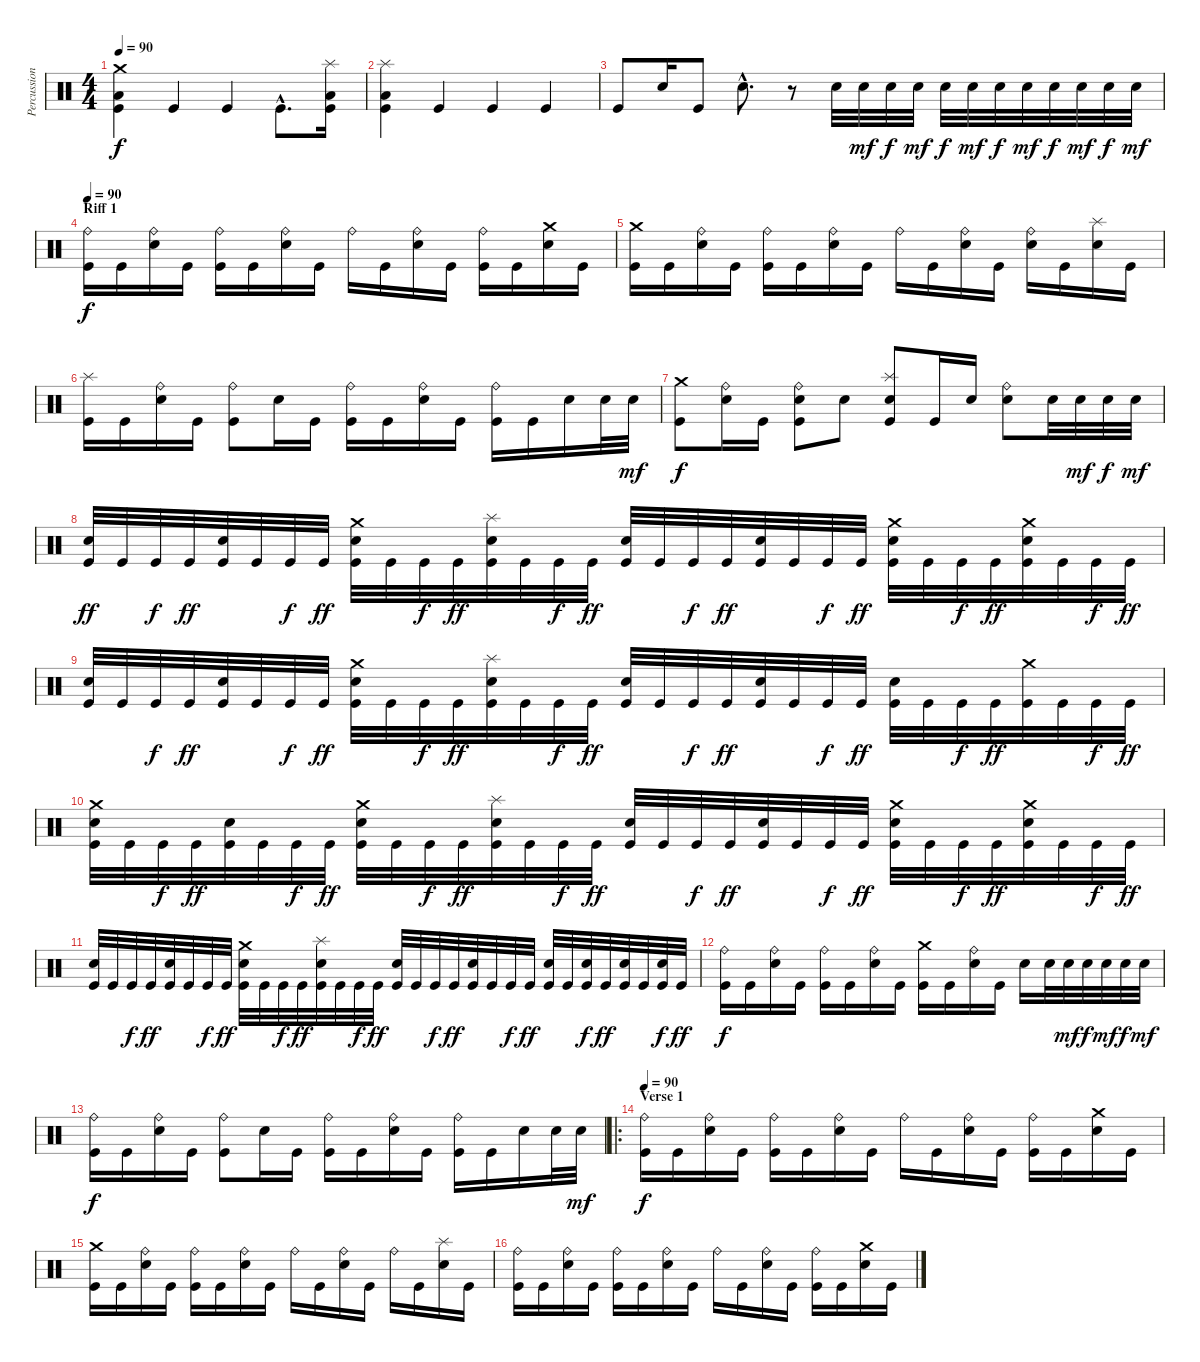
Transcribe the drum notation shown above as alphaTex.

\track ("Percussioni" "Percussion") {instrument percussion}
\staff {score}
\articulation defaults
\ts (4 4)
\tempo 90
\clef neutral
\ks c
("Crash medium (hit)" "Low Floor Tom (hit)" "Kick (hit)").4{dy f} "Kick (hit)".4 "Kick (hit)".4 "Kick (hit)"{hac}.8{d} ("Splash (hit)" "Low Floor Tom (hit)" "Kick (hit)").16 |
("Splash (hit)" "Low Floor Tom (hit)" "Kick (hit)").4 "Kick (hit)".4 "Kick (hit)".4 "Kick (hit)".4 |
"Kick (hit)".8 "Snare (hit) 2".16 "Kick (hit)".8 "Snare (hit) 2"{hac}.8{d} r.8 "Snare (hit) 2".32 "Snare (hit) 2".32{dy mf} "Snare (hit) 2".32{dy f} "Snare (hit) 2".32{dy mf} "Snare (hit) 2".32{dy f} "Snare (hit) 2".32{dy mf} "Snare (hit) 2".32{dy f} "Snare (hit) 2".32{dy mf} "Snare (hit) 2".32{dy f} "Snare (hit) 2".32{dy mf} "Snare (hit) 2".32{dy f} "Snare (hit) 2".32{dy mf} |
\section ("" "Riff 1")
\tempo 90
("Ride (bell)" "Kick (hit)").16{dy f} "Kick (hit)".16 ("Ride (bell)" "Snare (hit) 2").16 "Kick (hit)".16 ("Ride (bell)" "Kick (hit)").16 "Kick (hit)".16 ("Ride (bell)" "Snare (hit) 2").16 "Kick (hit)".16 "Ride (bell)".16 "Kick (hit)".16 ("Ride (bell)" "Snare (hit) 2").16 "Kick (hit)".16 ("Ride (bell)" "Kick (hit)").16 "Kick (hit)".16 ("Crash medium (hit)" "Snare (hit) 2").16 "Kick (hit)".16 |
("Crash medium (hit)" "Kick (hit)").16 "Kick (hit)".16 ("Ride (bell)" "Snare (hit) 2").16 "Kick (hit)".16 ("Ride (bell)" "Kick (hit)").16 "Kick (hit)".16 ("Ride (bell)" "Snare (hit) 2").16 "Kick (hit)".16 "Ride (bell)".16 "Kick (hit)".16 ("Ride (bell)" "Snare (hit) 2").16 "Kick (hit)".16 ("Ride (bell)" "Snare (hit) 2").16 "Kick (hit)".16 ("Splash (hit)" "Snare (hit) 2").16 "Kick (hit)".16 |
("Splash (hit)" "Kick (hit)").16 "Kick (hit)".16 ("Ride (bell)" "Snare (hit) 2").16 "Kick (hit)".16 ("Ride (bell)" "Kick (hit)").8 "Snare (hit) 2".16 "Kick (hit)".16 ("Ride (bell)" "Kick (hit)").16 "Kick (hit)".16 ("Ride (bell)" "Snare (hit) 2").16 "Kick (hit)".16 ("Ride (bell)" "Kick (hit)").16 "Kick (hit)".16 "Snare (hit) 2".16 "Snare (hit) 2".32 "Snare (hit) 2".32{dy mf} |
("Crash medium (hit)" "Kick (hit)").8{dy f} ("Ride (bell)" "Snare (hit) 2").16 "Kick (hit)".16 ("Ride (bell)" "Snare (hit) 2" "Kick (hit)").8 "Snare (hit) 2".8 ("Splash (hit)" "Snare (hit) 2" "Kick (hit)").8 "Kick (hit)".16 "Snare (hit) 2".16 ("Ride (bell)" "Snare (hit) 2").8 "Snare (hit) 2".32 "Snare (hit) 2".32{dy mf} "Snare (hit) 2".32{dy f} "Snare (hit) 2".32{dy mf} |
("Snare (hit) 2" "Kick (hit)").32{dy ff} "Kick (hit)".32 "Kick (hit)".32{dy f} "Kick (hit)".32{dy ff} ("Snare (hit) 2" "Kick (hit)").32 "Kick (hit)".32 "Kick (hit)".32{dy f} "Kick (hit)".32{dy ff} ("Crash medium (hit)" "Snare (hit) 2" "Kick (hit)").32 "Kick (hit)".32 "Kick (hit)".32{dy f} "Kick (hit)".32{dy ff} ("Splash (hit)" "Snare (hit) 2" "Kick (hit)").32 "Kick (hit)".32 "Kick (hit)".32{dy f} "Kick (hit)".32{dy ff} ("Snare (hit) 2" "Kick (hit)").32 "Kick (hit)".32 "Kick (hit)".32{dy f} "Kick (hit)".32{dy ff} ("Snare (hit) 2" "Kick (hit)").32 "Kick (hit)".32 "Kick (hit)".32{dy f} "Kick (hit)".32{dy ff} ("Crash medium (hit)" "Snare (hit) 2" "Kick (hit)").32 "Kick (hit)".32 "Kick (hit)".32{dy f} "Kick (hit)".32{dy ff} ("Crash medium (hit)" "Snare (hit) 2" "Kick (hit)").32 "Kick (hit)".32 "Kick (hit)".32{dy f} "Kick (hit)".32{dy ff} |
("Snare (hit) 2" "Kick (hit)").32 "Kick (hit)".32 "Kick (hit)".32{dy f} "Kick (hit)".32{dy ff} ("Snare (hit) 2" "Kick (hit)").32 "Kick (hit)".32 "Kick (hit)".32{dy f} "Kick (hit)".32{dy ff} ("Crash medium (hit)" "Snare (hit) 2" "Kick (hit)").32 "Kick (hit)".32 "Kick (hit)".32{dy f} "Kick (hit)".32{dy ff} ("Splash (hit)" "Snare (hit) 2" "Kick (hit)").32 "Kick (hit)".32 "Kick (hit)".32{dy f} "Kick (hit)".32{dy ff} ("Snare (hit) 2" "Kick (hit)").32 "Kick (hit)".32 "Kick (hit)".32{dy f} "Kick (hit)".32{dy ff} ("Snare (hit) 2" "Kick (hit)").32 "Kick (hit)".32 "Kick (hit)".32{dy f} "Kick (hit)".32{dy ff} ("Snare (hit) 2" "Kick (hit)").32 "Kick (hit)".32 "Kick (hit)".32{dy f} "Kick (hit)".32{dy ff} ("Crash medium (hit)" "Kick (hit)").32 "Kick (hit)".32 "Kick (hit)".32{dy f} "Kick (hit)".32{dy ff} |
("Crash medium (hit)" "Snare (hit) 2" "Kick (hit)").32 "Kick (hit)".32 "Kick (hit)".32{dy f} "Kick (hit)".32{dy ff} ("Snare (hit) 2" "Kick (hit)").32 "Kick (hit)".32 "Kick (hit)".32{dy f} "Kick (hit)".32{dy ff} ("Crash medium (hit)" "Snare (hit) 2" "Kick (hit)").32 "Kick (hit)".32 "Kick (hit)".32{dy f} "Kick (hit)".32{dy ff} ("Splash (hit)" "Snare (hit) 2" "Kick (hit)").32 "Kick (hit)".32 "Kick (hit)".32{dy f} "Kick (hit)".32{dy ff} ("Snare (hit) 2" "Kick (hit)").32 "Kick (hit)".32 "Kick (hit)".32{dy f} "Kick (hit)".32{dy ff} ("Snare (hit) 2" "Kick (hit)").32 "Kick (hit)".32 "Kick (hit)".32{dy f} "Kick (hit)".32{dy ff} ("Crash medium (hit)" "Snare (hit) 2" "Kick (hit)").32 "Kick (hit)".32 "Kick (hit)".32{dy f} "Kick (hit)".32{dy ff} ("Crash medium (hit)" "Snare (hit) 2" "Kick (hit)").32 "Kick (hit)".32 "Kick (hit)".32{dy f} "Kick (hit)".32{dy ff} |
("Snare (hit) 2" "Kick (hit)").32 "Kick (hit)".32 "Kick (hit)".32{dy f} "Kick (hit)".32{dy ff} ("Snare (hit) 2" "Kick (hit)").32 "Kick (hit)".32 "Kick (hit)".32{dy f} "Kick (hit)".32{dy ff} ("Crash medium (hit)" "Snare (hit) 2" "Kick (hit)").32 "Kick (hit)".32 "Kick (hit)".32{dy f} "Kick (hit)".32{dy ff} ("Splash (hit)" "Snare (hit) 2" "Kick (hit)").32 "Kick (hit)".32 "Kick (hit)".32{dy f} "Kick (hit)".32{dy ff} ("Snare (hit) 2" "Kick (hit)").32 "Kick (hit)".32 "Kick (hit)".32{dy f} "Kick (hit)".32{dy ff} ("Snare (hit) 2" "Kick (hit)").32 "Kick (hit)".32 "Kick (hit)".32{dy f} "Kick (hit)".32{dy ff} ("Snare (hit) 2" "Kick (hit)").32 "Kick (hit)".32 ("Snare (hit) 2" "Kick (hit)").32{dy f} "Kick (hit)".32{dy ff} ("Snare (hit) 2" "Kick (hit)").32 "Kick (hit)".32 ("Snare (hit) 2" "Kick (hit)").32{dy f} "Kick (hit)".32{dy ff} |
("Ride (bell)" "Kick (hit)").16{dy f} "Kick (hit)".16 ("Ride (bell)" "Snare (hit) 2").16 "Kick (hit)".16 ("Ride (bell)" "Kick (hit)").16 "Kick (hit)".16 ("Ride (bell)" "Snare (hit) 2").16 "Kick (hit)".16 ("Crash medium (hit)" "Kick (hit)").16 "Kick (hit)".16 ("Ride (bell)" "Snare (hit) 2").16 "Kick (hit)".16 "Snare (hit) 2".16 "Snare (hit) 2".32 "Snare (hit) 2".32{dy mf} "Snare (hit) 2".32{dy f} "Snare (hit) 2".32{dy mf} "Snare (hit) 2".32{dy f} "Snare (hit) 2".32{dy mf} |
("Ride (bell)" "Kick (hit)").16{dy f} "Kick (hit)".16 ("Ride (bell)" "Snare (hit) 2").16 "Kick (hit)".16 ("Ride (bell)" "Kick (hit)").8 "Snare (hit) 2".16 "Kick (hit)".16 ("Ride (bell)" "Kick (hit)").16 "Kick (hit)".16 ("Ride (bell)" "Snare (hit) 2").16 "Kick (hit)".16 ("Ride (bell)" "Kick (hit)").16 "Kick (hit)".16 "Snare (hit) 2".16 "Snare (hit) 2".32 "Snare (hit) 2".32{dy mf} |
\ro
\section ("" "Verse 1")
\tempo 90
("Ride (bell)" "Kick (hit)").16{dy f} "Kick (hit)".16 ("Ride (bell)" "Snare (hit) 2").16 "Kick (hit)".16 ("Ride (bell)" "Kick (hit)").16 "Kick (hit)".16 ("Ride (bell)" "Snare (hit) 2").16 "Kick (hit)".16 "Ride (bell)".16 "Kick (hit)".16 ("Ride (bell)" "Snare (hit) 2").16 "Kick (hit)".16 ("Ride (bell)" "Kick (hit)").16 "Kick (hit)".16 ("Crash medium (hit)" "Snare (hit) 2").16 "Kick (hit)".16 |
("Crash medium (hit)" "Kick (hit)").16 "Kick (hit)".16 ("Ride (bell)" "Snare (hit) 2").16 "Kick (hit)".16 ("Ride (bell)" "Kick (hit)").16 "Kick (hit)".16 ("Ride (bell)" "Snare (hit) 2").16 "Kick (hit)".16 "Ride (bell)".16 "Kick (hit)".16 ("Ride (bell)" "Snare (hit) 2").16 "Kick (hit)".16 "Ride (bell)".16 "Kick (hit)".16 ("Splash (hit)" "Snare (hit) 2").16 "Kick (hit)".16 |
("Ride (bell)" "Kick (hit)").16 "Kick (hit)".16 ("Ride (bell)" "Snare (hit) 2").16 "Kick (hit)".16 ("Ride (bell)" "Kick (hit)").16 "Kick (hit)".16 ("Ride (bell)" "Snare (hit) 2").16 "Kick (hit)".16 "Ride (bell)".16 "Kick (hit)".16 ("Ride (bell)" "Snare (hit) 2").16 "Kick (hit)".16 ("Ride (bell)" "Kick (hit)").16 "Kick (hit)".16 ("Crash medium (hit)" "Snare (hit) 2").16 "Kick (hit)".16
